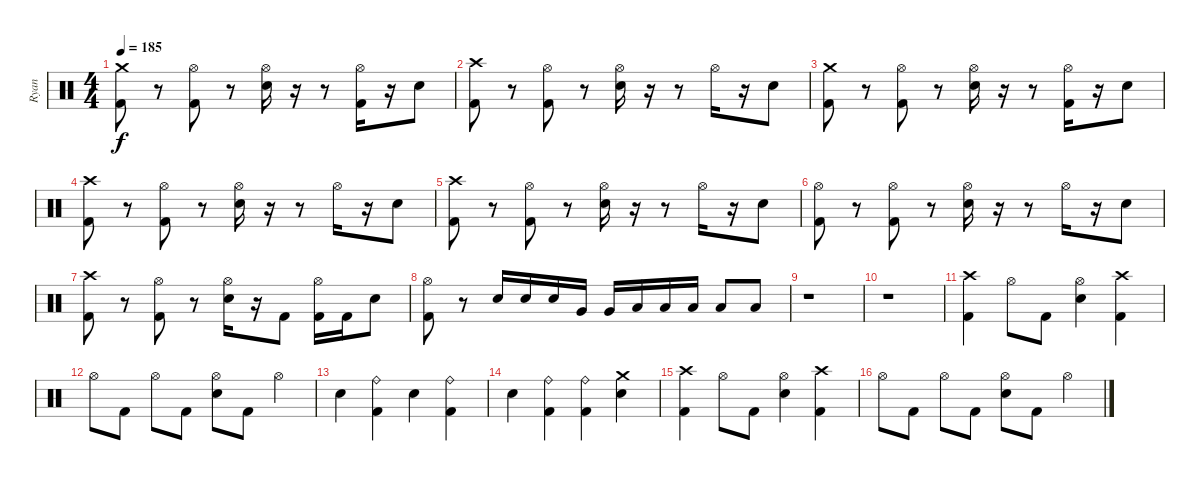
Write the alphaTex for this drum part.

\track ("Ryan" "Ryan") {instrument percussion}
\staff {score}
\articulation defaults
\ts (4 4)
\tempo 185
\clef neutral
\ks c
("Crash medium (hit)" "Kick (hit) 2").8{dy f} r.8 ("Hi-Hat (open)" "Kick (hit) 2").8 r.8 ("Hi-Hat (open)" "Electric Snare (hit)").16 r.16 r.8 ("Hi-Hat (open)" "Kick (hit) 2").16 r.16 "Electric Snare (hit)".8 |
("Crash high (hit)" "Kick (hit) 2").8 r.8 ("Hi-Hat (open)" "Kick (hit) 2").8 r.8 ("Hi-Hat (open)" "Electric Snare (hit)").16 r.16 r.8 "Hi-Hat (open)".16 r.16 "Electric Snare (hit)".8 |
("Crash medium (hit)" "Kick (hit) 2").8 r.8 ("Hi-Hat (open)" "Kick (hit) 2").8 r.8 ("Hi-Hat (open)" "Electric Snare (hit)").16 r.16 r.8 ("Hi-Hat (open)" "Kick (hit) 2").16 r.16 "Electric Snare (hit)".8 |
("Crash high (hit)" "Kick (hit) 2").8 r.8 ("Hi-Hat (open)" "Kick (hit) 2").8 r.8 ("Hi-Hat (open)" "Electric Snare (hit)").16 r.16 r.8 "Hi-Hat (open)".16 r.16 "Electric Snare (hit)".8 |
("Crash high (hit)" "Kick (hit) 2").8 r.8 ("Hi-Hat (open)" "Kick (hit) 2").8 r.8 ("Hi-Hat (open)" "Electric Snare (hit)").16 r.16 r.8 "Hi-Hat (open)".16 r.16 "Electric Snare (hit)".8 |
("Hi-Hat (open)" "Kick (hit) 2").8 r.8 ("Hi-Hat (open)" "Kick (hit) 2").8 r.8 ("Hi-Hat (open)" "Electric Snare (hit)").16 r.16 r.8 "Hi-Hat (open)".16 r.16 "Electric Snare (hit)".8 |
("Crash high (hit)" "Kick (hit) 2").8 r.8 ("Hi-Hat (open)" "Kick (hit) 2").8 r.8 ("Hi-Hat (open)" "Electric Snare (hit)").16 r.16 "Kick (hit) 2".8 ("Hi-Hat (open)" "Kick (hit) 2").16 "Kick (hit) 2".16 "Electric Snare (hit)".8 |
("Hi-Hat (open)" "Kick (hit) 2").8 r.8 "Electric Snare (hit)".16 "Electric Snare (hit)".16 "Electric Snare (hit)".16 "Very Low Tom (hit)".16 "Very Low Tom (hit)".16 "Low Floor Tom (hit)".16 "Low Floor Tom (hit)".16 "Low Floor Tom (hit)".16 "Low Floor Tom (hit)".8 "Low Floor Tom (hit)".8 |
r.1 |
r.1 |
("Crash high (hit)" "Kick (hit) 2").4 "Hi-Hat (open)".8 "Kick (hit) 2".8 ("Hi-Hat (open)" "Electric Snare (hit)").4 ("Crash high (hit)" "Kick (hit) 2").4 |
"Hi-Hat (open)".8 "Kick (hit) 2".8 "Hi-Hat (open)".8 "Kick (hit) 2".8 ("Hi-Hat (open)" "Electric Snare (hit)").8 "Kick (hit) 2".8 "Hi-Hat (open)".4 |
"Electric Snare (hit)".4 ("Ride (bell)" "Kick (hit) 2").4 "Electric Snare (hit)".4 ("Ride (bell)" "Kick (hit) 2").4 |
"Electric Snare (hit)".4 ("Ride (bell)" "Kick (hit) 2").4 ("Ride (bell)" "Kick (hit) 2").4 ("Crash medium (hit)" "Electric Snare (hit)").4 |
("Crash high (hit)" "Kick (hit) 2").4 "Hi-Hat (open)".8 "Kick (hit) 2".8 ("Hi-Hat (open)" "Electric Snare (hit)").4 ("Crash high (hit)" "Kick (hit) 2").4 |
"Hi-Hat (open)".8 "Kick (hit) 2".8 "Hi-Hat (open)".8 "Kick (hit) 2".8 ("Hi-Hat (open)" "Electric Snare (hit)").8 "Kick (hit) 2".8 "Hi-Hat (open)".4
